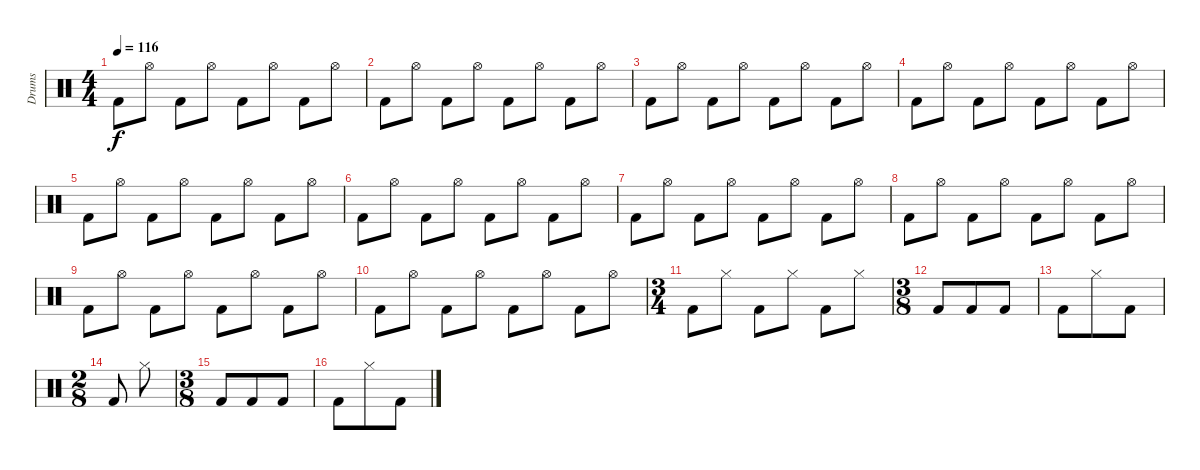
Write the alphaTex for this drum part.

\track ("Drums" "Drums") {instrument percussion}
\staff {score}
\articulation defaults
\ts (4 4)
\tempo 116
\clef neutral
\ks c "Kick (hit) 2".8{dy f} "Hi-Hat (open)".8 "Kick (hit) 2".8 "Hi-Hat (open)".8 "Kick (hit) 2".8 "Hi-Hat (open)".8 "Kick (hit) 2".8 "Hi-Hat (open)".8
|
"Kick (hit) 2".8 "Hi-Hat (open)".8 "Kick (hit) 2".8 "Hi-Hat (open)".8 "Kick (hit) 2".8 "Hi-Hat (open)".8 "Kick (hit) 2".8 "Hi-Hat (open)".8 |
"Kick (hit) 2".8 "Hi-Hat (open)".8 "Kick (hit) 2".8 "Hi-Hat (open)".8 "Kick (hit) 2".8 "Hi-Hat (open)".8 "Kick (hit) 2".8 "Hi-Hat (open)".8 |
"Kick (hit) 2".8 "Hi-Hat (open)".8 "Kick (hit) 2".8 "Hi-Hat (open)".8 "Kick (hit) 2".8 "Hi-Hat (open)".8 "Kick (hit) 2".8 "Hi-Hat (open)".8 |
"Kick (hit) 2".8 "Hi-Hat (open)".8 "Kick (hit) 2".8 "Hi-Hat (open)".8 "Kick (hit) 2".8 "Hi-Hat (open)".8 "Kick (hit) 2".8 "Hi-Hat (open)".8 |
"Kick (hit) 2".8 "Hi-Hat (open)".8 "Kick (hit) 2".8 "Hi-Hat (open)".8 "Kick (hit) 2".8 "Hi-Hat (open)".8 "Kick (hit) 2".8 "Hi-Hat (open)".8 |
"Kick (hit) 2".8 "Hi-Hat (open)".8 "Kick (hit) 2".8 "Hi-Hat (open)".8 "Kick (hit) 2".8 "Hi-Hat (open)".8 "Kick (hit) 2".8 "Hi-Hat (open)".8 |
"Kick (hit) 2".8 "Hi-Hat (open)".8 "Kick (hit) 2".8 "Hi-Hat (open)".8 "Kick (hit) 2".8 "Hi-Hat (open)".8 "Kick (hit) 2".8 "Hi-Hat (open)".8 |
"Kick (hit) 2".8 "Hi-Hat (open)".8 "Kick (hit) 2".8 "Hi-Hat (open)".8 "Kick (hit) 2".8 "Hi-Hat (open)".8 "Kick (hit) 2".8 "Hi-Hat (open)".8 |
"Kick (hit) 2".8 "Hi-Hat (open)".8 "Kick (hit) 2".8 "Hi-Hat (open)".8 "Kick (hit) 2".8 "Hi-Hat (open)".8 "Kick (hit) 2".8 "Hi-Hat (open)".8 |
\ts (3 4)
"Kick (hit) 2".8 "Hi-Hat (closed)".8 "Kick (hit) 2".8 "Hi-Hat (closed)".8 "Kick (hit) 2".8 "Hi-Hat (closed)".8 |
\ts (3 8)
"Kick (hit) 2".8 "Kick (hit) 2".8 "Kick (hit) 2".8 |
"Kick (hit) 2".8 "Hi-Hat (closed)".8 "Kick (hit) 2".8 |
\ts (2 8)
"Kick (hit) 2".8 "Hi-Hat (closed)".8 |
\ts (3 8)
"Kick (hit) 2".8 "Kick (hit) 2".8 "Kick (hit) 2".8 |
"Kick (hit) 2".8 "Hi-Hat (closed)".8 "Kick (hit) 2".8
